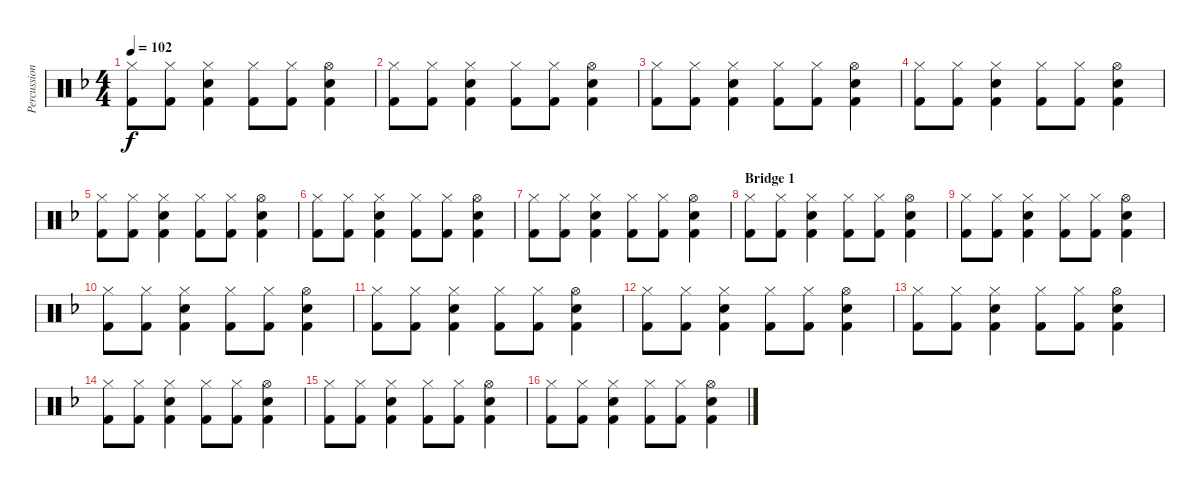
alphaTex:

\track ("Percussion" "Percussion") {instrument percussion}
\staff {score}
\articulation defaults
\ts (4 4)
\tempo 102
\clef neutral
\ks dminor
("Hi-Hat (closed)" "Kick (hit) 2").8{dy f} ("Hi-Hat (closed)" "Kick (hit) 2").8 ("Hi-Hat (closed)" "Kick (hit) 2" "Snare (hit) 2").4 ("Hi-Hat (closed)" "Kick (hit) 2").8 ("Hi-Hat (closed)" "Kick (hit) 2").8 ("Hi-Hat (open)" "Kick (hit) 2" "Snare (hit) 2").4 |
("Hi-Hat (closed)" "Kick (hit) 2").8 ("Hi-Hat (closed)" "Kick (hit) 2").8 ("Hi-Hat (closed)" "Kick (hit) 2" "Snare (hit) 2").4 ("Hi-Hat (closed)" "Kick (hit) 2").8 ("Hi-Hat (closed)" "Kick (hit) 2").8 ("Hi-Hat (open)" "Kick (hit) 2" "Snare (hit) 2").4 |
("Hi-Hat (closed)" "Kick (hit) 2").8 ("Hi-Hat (closed)" "Kick (hit) 2").8 ("Hi-Hat (closed)" "Kick (hit) 2" "Snare (hit) 2").4 ("Hi-Hat (closed)" "Kick (hit) 2").8 ("Hi-Hat (closed)" "Kick (hit) 2").8 ("Hi-Hat (open)" "Kick (hit) 2" "Snare (hit) 2").4 |
("Hi-Hat (closed)" "Kick (hit) 2").8 ("Hi-Hat (closed)" "Kick (hit) 2").8 ("Hi-Hat (closed)" "Kick (hit) 2" "Snare (hit) 2").4 ("Hi-Hat (closed)" "Kick (hit) 2").8 ("Hi-Hat (closed)" "Kick (hit) 2").8 ("Hi-Hat (open)" "Kick (hit) 2" "Snare (hit) 2").4 |
("Hi-Hat (closed)" "Kick (hit) 2").8 ("Hi-Hat (closed)" "Kick (hit) 2").8 ("Hi-Hat (closed)" "Kick (hit) 2" "Snare (hit) 2").4 ("Hi-Hat (closed)" "Kick (hit) 2").8 ("Hi-Hat (closed)" "Kick (hit) 2").8 ("Hi-Hat (open)" "Kick (hit) 2" "Snare (hit) 2").4 |
("Hi-Hat (closed)" "Kick (hit) 2").8 ("Hi-Hat (closed)" "Kick (hit) 2").8 ("Hi-Hat (closed)" "Kick (hit) 2" "Snare (hit) 2").4 ("Hi-Hat (closed)" "Kick (hit) 2").8 ("Hi-Hat (closed)" "Kick (hit) 2").8 ("Hi-Hat (open)" "Kick (hit) 2" "Snare (hit) 2").4 |
("Hi-Hat (closed)" "Kick (hit) 2").8 ("Hi-Hat (closed)" "Kick (hit) 2").8 ("Hi-Hat (closed)" "Kick (hit) 2" "Snare (hit) 2").4 ("Hi-Hat (closed)" "Kick (hit) 2").8 ("Hi-Hat (closed)" "Kick (hit) 2").8 ("Hi-Hat (open)" "Kick (hit) 2" "Snare (hit) 2").4 |
\section ("" "Bridge 1")
("Hi-Hat (closed)" "Kick (hit) 2").8 ("Hi-Hat (closed)" "Kick (hit) 2").8 ("Hi-Hat (closed)" "Kick (hit) 2" "Snare (hit) 2").4 ("Hi-Hat (closed)" "Kick (hit) 2").8 ("Hi-Hat (closed)" "Kick (hit) 2").8 ("Hi-Hat (open)" "Kick (hit) 2" "Snare (hit) 2").4 |
("Hi-Hat (closed)" "Kick (hit) 2").8 ("Hi-Hat (closed)" "Kick (hit) 2").8 ("Hi-Hat (closed)" "Kick (hit) 2" "Snare (hit) 2").4 ("Hi-Hat (closed)" "Kick (hit) 2").8 ("Hi-Hat (closed)" "Kick (hit) 2").8 ("Hi-Hat (open)" "Kick (hit) 2" "Snare (hit) 2").4 |
("Hi-Hat (closed)" "Kick (hit) 2").8 ("Hi-Hat (closed)" "Kick (hit) 2").8 ("Hi-Hat (closed)" "Kick (hit) 2" "Snare (hit) 2").4 ("Hi-Hat (closed)" "Kick (hit) 2").8 ("Hi-Hat (closed)" "Kick (hit) 2").8 ("Hi-Hat (open)" "Kick (hit) 2" "Snare (hit) 2").4 |
("Hi-Hat (closed)" "Kick (hit) 2").8 ("Hi-Hat (closed)" "Kick (hit) 2").8 ("Hi-Hat (closed)" "Kick (hit) 2" "Snare (hit) 2").4 ("Hi-Hat (closed)" "Kick (hit) 2").8 ("Hi-Hat (closed)" "Kick (hit) 2").8 ("Hi-Hat (open)" "Kick (hit) 2" "Snare (hit) 2").4 |
("Hi-Hat (closed)" "Kick (hit) 2").8 ("Hi-Hat (closed)" "Kick (hit) 2").8 ("Hi-Hat (closed)" "Kick (hit) 2" "Snare (hit) 2").4 ("Hi-Hat (closed)" "Kick (hit) 2").8 ("Hi-Hat (closed)" "Kick (hit) 2").8 ("Hi-Hat (open)" "Kick (hit) 2" "Snare (hit) 2").4 |
("Hi-Hat (closed)" "Kick (hit) 2").8 ("Hi-Hat (closed)" "Kick (hit) 2").8 ("Hi-Hat (closed)" "Kick (hit) 2" "Snare (hit) 2").4 ("Hi-Hat (closed)" "Kick (hit) 2").8 ("Hi-Hat (closed)" "Kick (hit) 2").8 ("Hi-Hat (open)" "Kick (hit) 2" "Snare (hit) 2").4 |
("Hi-Hat (closed)" "Kick (hit) 2").8 ("Hi-Hat (closed)" "Kick (hit) 2").8 ("Hi-Hat (closed)" "Kick (hit) 2" "Snare (hit) 2").4 ("Hi-Hat (closed)" "Kick (hit) 2").8 ("Hi-Hat (closed)" "Kick (hit) 2").8 ("Hi-Hat (open)" "Kick (hit) 2" "Snare (hit) 2").4 |
("Hi-Hat (closed)" "Kick (hit) 2").8 ("Hi-Hat (closed)" "Kick (hit) 2").8 ("Hi-Hat (closed)" "Kick (hit) 2" "Snare (hit) 2").4 ("Hi-Hat (closed)" "Kick (hit) 2").8 ("Hi-Hat (closed)" "Kick (hit) 2").8 ("Hi-Hat (open)" "Kick (hit) 2" "Snare (hit) 2").4 |
("Hi-Hat (closed)" "Kick (hit) 2").8 ("Hi-Hat (closed)" "Kick (hit) 2").8 ("Hi-Hat (closed)" "Kick (hit) 2" "Snare (hit) 2").4 ("Hi-Hat (closed)" "Kick (hit) 2").8 ("Hi-Hat (closed)" "Kick (hit) 2").8 ("Hi-Hat (open)" "Kick (hit) 2" "Snare (hit) 2").4
